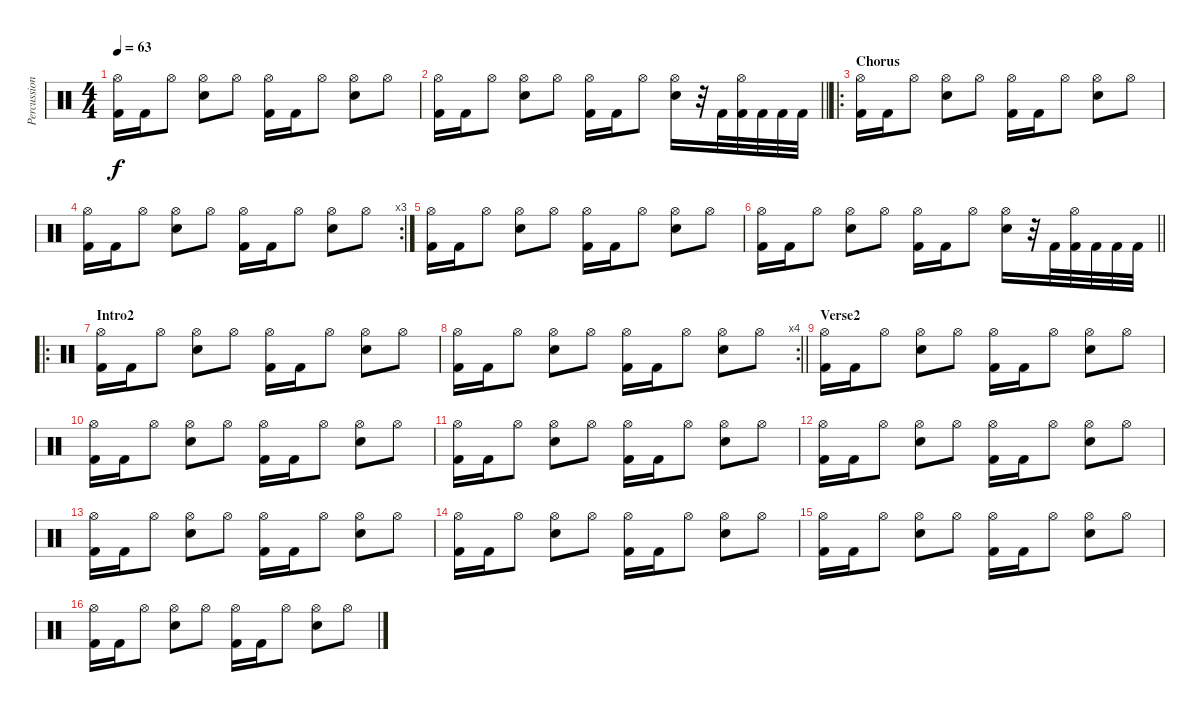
\track ("Percussion" "Percussion") {instrument percussion}
\staff {score}
\articulation defaults
\ts (4 4)
\tempo 63
\clef neutral
\ks c
("Hi-Hat (open)" "Kick (hit) 2").16{dy f} "Kick (hit) 2".16 "Hi-Hat (open)".8 ("Hi-Hat (open)" "Electric Snare (hit)").8 "Hi-Hat (open)".8 ("Hi-Hat (open)" "Kick (hit) 2").16 "Kick (hit) 2".16 "Hi-Hat (open)".8 ("Hi-Hat (open)" "Electric Snare (hit)").8 "Hi-Hat (open)".8 |
\barLineRight lightlight
("Hi-Hat (open)" "Kick (hit) 2").16 "Kick (hit) 2".16 "Hi-Hat (open)".8 ("Hi-Hat (open)" "Electric Snare (hit)").8 "Hi-Hat (open)".8 ("Hi-Hat (open)" "Kick (hit) 2").16 "Kick (hit) 2".16 "Hi-Hat (open)".8 ("Hi-Hat (open)" "Electric Snare (hit)").16 r.32 "Kick (hit) 2".32 ("Hi-Hat (open)" "Kick (hit) 2").32 "Kick (hit) 2".32 "Kick (hit) 2".32 "Kick (hit) 2".32 |
\ro
\section ("" "Chorus")
("Hi-Hat (open)" "Kick (hit) 2").16 "Kick (hit) 2".16 "Hi-Hat (open)".8 ("Hi-Hat (open)" "Electric Snare (hit)").8 "Hi-Hat (open)".8 ("Hi-Hat (open)" "Kick (hit) 2").16 "Kick (hit) 2".16 "Hi-Hat (open)".8 ("Hi-Hat (open)" "Electric Snare (hit)").8 "Hi-Hat (open)".8 |
\rc 3
("Hi-Hat (open)" "Kick (hit) 2").16 "Kick (hit) 2".16 "Hi-Hat (open)".8 ("Hi-Hat (open)" "Electric Snare (hit)").8 "Hi-Hat (open)".8 ("Hi-Hat (open)" "Kick (hit) 2").16 "Kick (hit) 2".16 "Hi-Hat (open)".8 ("Hi-Hat (open)" "Electric Snare (hit)").8 "Hi-Hat (open)".8 |
("Hi-Hat (open)" "Kick (hit) 2").16 "Kick (hit) 2".16 "Hi-Hat (open)".8 ("Hi-Hat (open)" "Electric Snare (hit)").8 "Hi-Hat (open)".8 ("Hi-Hat (open)" "Kick (hit) 2").16 "Kick (hit) 2".16 "Hi-Hat (open)".8 ("Hi-Hat (open)" "Electric Snare (hit)").8 "Hi-Hat (open)".8 |
\barLineRight lightlight
("Hi-Hat (open)" "Kick (hit) 2").16 "Kick (hit) 2".16 "Hi-Hat (open)".8 ("Hi-Hat (open)" "Electric Snare (hit)").8 "Hi-Hat (open)".8 ("Hi-Hat (open)" "Kick (hit) 2").16 "Kick (hit) 2".16 "Hi-Hat (open)".8 ("Hi-Hat (open)" "Electric Snare (hit)").16 r.32 "Kick (hit) 2".32 ("Hi-Hat (open)" "Kick (hit) 2").32 "Kick (hit) 2".32 "Kick (hit) 2".32 "Kick (hit) 2".32 |
\ro
\section ("" "Intro2")
("Hi-Hat (open)" "Kick (hit) 2").16 "Kick (hit) 2".16 "Hi-Hat (open)".8 ("Hi-Hat (open)" "Electric Snare (hit)").8 "Hi-Hat (open)".8 ("Hi-Hat (open)" "Kick (hit) 2").16 "Kick (hit) 2".16 "Hi-Hat (open)".8 ("Hi-Hat (open)" "Electric Snare (hit)").8 "Hi-Hat (open)".8 |
\rc 4
\barLineRight lightlight
("Hi-Hat (open)" "Kick (hit) 2").16 "Kick (hit) 2".16 "Hi-Hat (open)".8 ("Hi-Hat (open)" "Electric Snare (hit)").8 "Hi-Hat (open)".8 ("Hi-Hat (open)" "Kick (hit) 2").16 "Kick (hit) 2".16 "Hi-Hat (open)".8 ("Hi-Hat (open)" "Electric Snare (hit)").8 "Hi-Hat (open)".8 |
\section ("" "Verse2")
("Hi-Hat (open)" "Kick (hit) 2").16 "Kick (hit) 2".16 "Hi-Hat (open)".8 ("Hi-Hat (open)" "Electric Snare (hit)").8 "Hi-Hat (open)".8 ("Hi-Hat (open)" "Kick (hit) 2").16 "Kick (hit) 2".16 "Hi-Hat (open)".8 ("Hi-Hat (open)" "Electric Snare (hit)").8 "Hi-Hat (open)".8 |
("Hi-Hat (open)" "Kick (hit) 2").16 "Kick (hit) 2".16 "Hi-Hat (open)".8 ("Hi-Hat (open)" "Electric Snare (hit)").8 "Hi-Hat (open)".8 ("Hi-Hat (open)" "Kick (hit) 2").16 "Kick (hit) 2".16 "Hi-Hat (open)".8 ("Hi-Hat (open)" "Electric Snare (hit)").8 "Hi-Hat (open)".8 |
("Hi-Hat (open)" "Kick (hit) 2").16 "Kick (hit) 2".16 "Hi-Hat (open)".8 ("Hi-Hat (open)" "Electric Snare (hit)").8 "Hi-Hat (open)".8 ("Hi-Hat (open)" "Kick (hit) 2").16 "Kick (hit) 2".16 "Hi-Hat (open)".8 ("Hi-Hat (open)" "Electric Snare (hit)").8 "Hi-Hat (open)".8 |
("Hi-Hat (open)" "Kick (hit) 2").16 "Kick (hit) 2".16 "Hi-Hat (open)".8 ("Hi-Hat (open)" "Electric Snare (hit)").8 "Hi-Hat (open)".8 ("Hi-Hat (open)" "Kick (hit) 2").16 "Kick (hit) 2".16 "Hi-Hat (open)".8 ("Hi-Hat (open)" "Electric Snare (hit)").8 "Hi-Hat (open)".8 |
("Hi-Hat (open)" "Kick (hit) 2").16 "Kick (hit) 2".16 "Hi-Hat (open)".8 ("Hi-Hat (open)" "Electric Snare (hit)").8 "Hi-Hat (open)".8 ("Hi-Hat (open)" "Kick (hit) 2").16 "Kick (hit) 2".16 "Hi-Hat (open)".8 ("Hi-Hat (open)" "Electric Snare (hit)").8 "Hi-Hat (open)".8 |
("Hi-Hat (open)" "Kick (hit) 2").16 "Kick (hit) 2".16 "Hi-Hat (open)".8 ("Hi-Hat (open)" "Electric Snare (hit)").8 "Hi-Hat (open)".8 ("Hi-Hat (open)" "Kick (hit) 2").16 "Kick (hit) 2".16 "Hi-Hat (open)".8 ("Hi-Hat (open)" "Electric Snare (hit)").8 "Hi-Hat (open)".8 |
("Hi-Hat (open)" "Kick (hit) 2").16 "Kick (hit) 2".16 "Hi-Hat (open)".8 ("Hi-Hat (open)" "Electric Snare (hit)").8 "Hi-Hat (open)".8 ("Hi-Hat (open)" "Kick (hit) 2").16 "Kick (hit) 2".16 "Hi-Hat (open)".8 ("Hi-Hat (open)" "Electric Snare (hit)").8 "Hi-Hat (open)".8 |
("Hi-Hat (open)" "Kick (hit) 2").16 "Kick (hit) 2".16 "Hi-Hat (open)".8 ("Hi-Hat (open)" "Electric Snare (hit)").8 "Hi-Hat (open)".8 ("Hi-Hat (open)" "Kick (hit) 2").16 "Kick (hit) 2".16 "Hi-Hat (open)".8 ("Hi-Hat (open)" "Electric Snare (hit)").8 "Hi-Hat (open)".8
